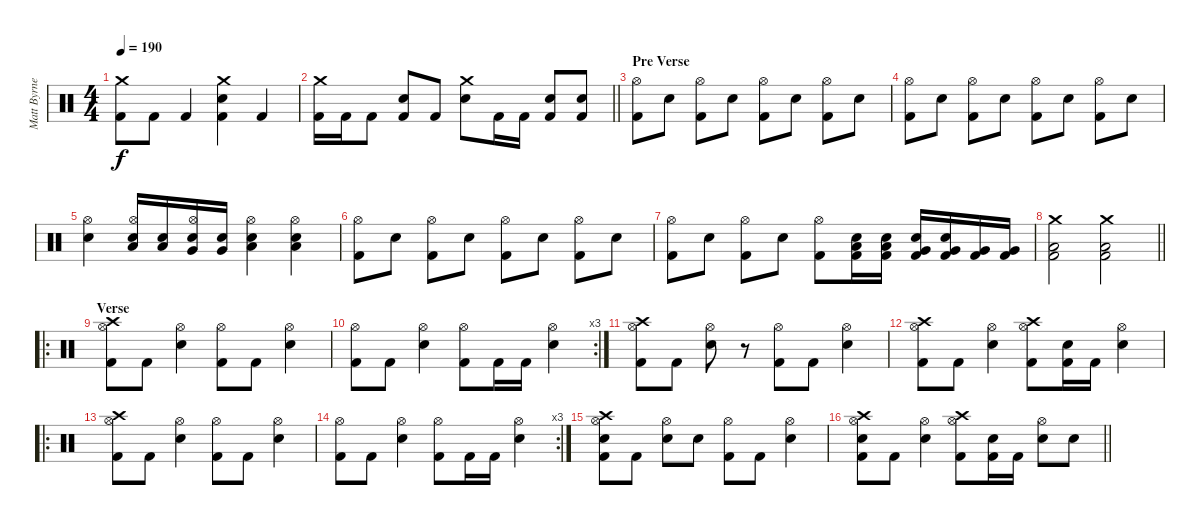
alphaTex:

\track ("Matt Byrne" "Matt Byrne") {instrument percussion}
\staff {score}
\articulation defaults
\ts (4 4)
\tempo 190
\clef neutral
\ks c
("Crash medium (hit)" "Kick (hit) 2").8{dy f} "Kick (hit) 2".8 "Kick (hit) 2".4 ("Crash medium (hit)" "Snare (hit) 2" "Kick (hit) 2").4 "Kick (hit) 2".4 |
\barLineRight lightlight
("Crash medium (hit)" "Kick (hit) 2").16 "Kick (hit) 2".16 "Kick (hit) 2".8 ("Snare (hit) 2" "Kick (hit) 2").8 "Kick (hit) 2".8 ("Snare (hit) 2" "Crash medium (hit)").8 "Kick (hit) 2".16 "Kick (hit) 2".16 ("Snare (hit) 2" "Kick (hit) 2").8 ("Snare (hit) 2" "Kick (hit) 2").8 |
\section ("" "Pre Verse")
("Kick (hit) 2" "Hi-Hat (open)").8 "Snare (hit) 2".8 ("Kick (hit) 2" "Hi-Hat (open)").8 "Snare (hit) 2".8 ("Kick (hit) 2" "Hi-Hat (open)").8 "Snare (hit) 2".8 ("Kick (hit) 2" "Hi-Hat (open)").8 "Snare (hit) 2".8 |
("Kick (hit) 2" "Hi-Hat (open)").8 "Snare (hit) 2".8 ("Kick (hit) 2" "Hi-Hat (open)").8 "Snare (hit) 2".8 ("Kick (hit) 2" "Hi-Hat (open)").8 "Snare (hit) 2".8 ("Kick (hit) 2" "Hi-Hat (open)").8 "Snare (hit) 2".8 |
("Hi-Hat (open)" "Snare (hit) 2").4 ("Hi-Hat (open)" "Low Tom (hit)" "Snare (hit) 2").16 ("Low Tom (hit)" "Snare (hit) 2").16 ("Hi-Hat (open)" "Very Low Tom (hit)" "Snare (hit) 2").16 ("Very Low Tom (hit)" "Snare (hit) 2").16 ("Hi-Hat (open)" "Low Floor Tom (hit)" "Snare (hit) 2").4 ("Hi-Hat (open)" "Low Floor Tom (hit)" "Snare (hit) 2").4 |
("Kick (hit) 2" "Hi-Hat (open)").8 "Snare (hit) 2".8 ("Kick (hit) 2" "Hi-Hat (open)").8 "Snare (hit) 2".8 ("Kick (hit) 2" "Hi-Hat (open)").8 "Snare (hit) 2".8 ("Kick (hit) 2" "Hi-Hat (open)").8 "Snare (hit) 2".8 |
("Kick (hit) 2" "Hi-Hat (open)").8 "Snare (hit) 2".8 ("Kick (hit) 2" "Hi-Hat (open)").8 "Snare (hit) 2".8 ("Kick (hit) 2" "Hi-Hat (open)").8 ("Low Tom (hit)" "Snare (hit) 2" "Kick (hit) 2").16 ("Low Tom (hit)" "Snare (hit) 2" "Kick (hit) 2").16 ("Very Low Tom (hit)" "Snare (hit) 2" "Kick (hit) 2").16 ("Very Low Tom (hit)" "Snare (hit) 2" "Kick (hit) 2").16 ("Very Low Tom (hit)" "Kick (hit) 2").16 ("Very Low Tom (hit)" "Kick (hit) 2").16 |
\barLineRight lightlight
("Crash medium (hit)" "Low Floor Tom (hit)" "Kick (hit) 2").2 ("Crash medium (hit)" "Low Floor Tom (hit)" "Kick (hit) 2").2 |
\ro
\section ("" "Verse")
("Crash high (hit)" "Hi-Hat (open)" "Kick (hit) 2").8 "Kick (hit) 2".8 ("Hi-Hat (open)" "Snare (hit) 2").4 ("Hi-Hat (open)" "Kick (hit) 2").8 "Kick (hit) 2".8 ("Hi-Hat (open)" "Snare (hit) 2").4 |
\rc 3
("Hi-Hat (open)" "Kick (hit) 2").8 "Kick (hit) 2".8 ("Hi-Hat (open)" "Snare (hit) 2").4 ("Hi-Hat (open)" "Kick (hit) 2").8 "Kick (hit) 2".16 "Kick (hit) 2".16 ("Hi-Hat (open)" "Snare (hit) 2").4 |
("Crash high (hit)" "Hi-Hat (open)" "Kick (hit) 2").8 "Kick (hit) 2".8 ("Hi-Hat (open)" "Snare (hit) 2").8 r.8 ("Hi-Hat (open)" "Kick (hit) 2").8 "Kick (hit) 2".8 ("Hi-Hat (open)" "Snare (hit) 2").4 |
("Crash high (hit)" "Hi-Hat (open)" "Kick (hit) 2").8 "Kick (hit) 2".8 ("Hi-Hat (open)" "Snare (hit) 2").4 ("Crash high (hit)" "Hi-Hat (open)" "Kick (hit) 2").8 ("Snare (hit) 2" "Kick (hit) 2").16 "Kick (hit) 2".16 ("Hi-Hat (open)" "Snare (hit) 2").4 |
\ro
("Crash high (hit)" "Hi-Hat (open)" "Kick (hit) 2").8 "Kick (hit) 2".8 ("Hi-Hat (open)" "Snare (hit) 2").4 ("Hi-Hat (open)" "Kick (hit) 2").8 "Kick (hit) 2".8 ("Hi-Hat (open)" "Snare (hit) 2").4 |
\rc 3
("Hi-Hat (open)" "Kick (hit) 2").8 "Kick (hit) 2".8 ("Hi-Hat (open)" "Snare (hit) 2").4 ("Hi-Hat (open)" "Kick (hit) 2").8 "Kick (hit) 2".16 "Kick (hit) 2".16 ("Hi-Hat (open)" "Snare (hit) 2").4 |
("Snare (hit) 2" "Crash high (hit)" "Hi-Hat (open)" "Kick (hit) 2").8 "Kick (hit) 2".8 ("Hi-Hat (open)" "Snare (hit) 2").8 "Snare (hit) 2".8 ("Hi-Hat (open)" "Kick (hit) 2").8 "Kick (hit) 2".8 ("Hi-Hat (open)" "Snare (hit) 2").4 |
\barLineRight lightlight
("Snare (hit) 2" "Crash high (hit)" "Hi-Hat (open)" "Kick (hit) 2").8 "Kick (hit) 2".8 ("Hi-Hat (open)" "Snare (hit) 2").4 ("Crash high (hit)" "Hi-Hat (open)" "Kick (hit) 2").8 ("Snare (hit) 2" "Kick (hit) 2").16 "Kick (hit) 2".16 ("Hi-Hat (open)" "Snare (hit) 2").8 "Snare (hit) 2".8
